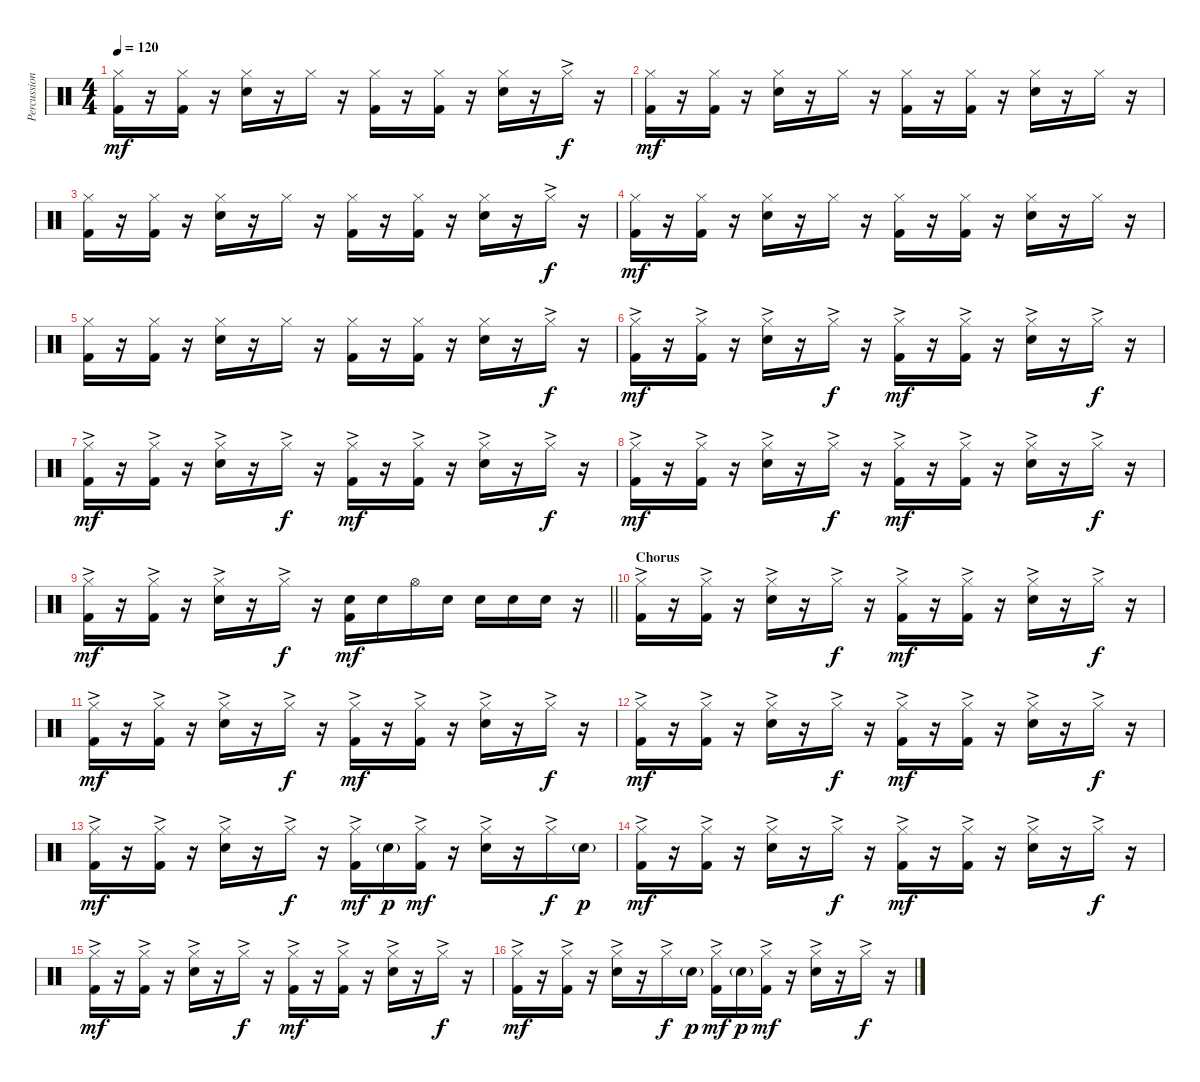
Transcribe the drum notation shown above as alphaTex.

\track ("Percussion" "Percussion") {instrument percussion}
\staff {score}
\articulation defaults
\ts (4 4)
\tempo 120
\clef neutral
\ks c
("Hi-Hat (closed)" "Kick (hit) 2").16{dy mf} r.16 ("Hi-Hat (closed)" "Kick (hit) 2").16 r.16 ("Hi-Hat (closed)" "Electric Snare (hit)").16 r.16 "Hi-Hat (closed)".16 r.16 ("Hi-Hat (closed)" "Kick (hit) 2").16 r.16 ("Hi-Hat (closed)" "Kick (hit) 2").16 r.16 ("Hi-Hat (closed)" "Electric Snare (hit)").16 r.16 "Hi-Hat (closed)"{ac}.16{dy f} r.16 |
("Hi-Hat (closed)" "Kick (hit) 2").16{dy mf} r.16 ("Hi-Hat (closed)" "Kick (hit) 2").16 r.16 ("Hi-Hat (closed)" "Electric Snare (hit)").16 r.16 "Hi-Hat (closed)".16 r.16 ("Hi-Hat (closed)" "Kick (hit) 2").16 r.16 ("Hi-Hat (closed)" "Kick (hit) 2").16 r.16 ("Hi-Hat (closed)" "Electric Snare (hit)").16 r.16 "Hi-Hat (closed)".16 r.16 |
("Hi-Hat (closed)" "Kick (hit) 2").16 r.16 ("Hi-Hat (closed)" "Kick (hit) 2").16 r.16 ("Hi-Hat (closed)" "Electric Snare (hit)").16 r.16 "Hi-Hat (closed)".16 r.16 ("Hi-Hat (closed)" "Kick (hit) 2").16 r.16 ("Hi-Hat (closed)" "Kick (hit) 2").16 r.16 ("Hi-Hat (closed)" "Electric Snare (hit)").16 r.16 "Hi-Hat (closed)"{ac}.16{dy f} r.16 |
("Hi-Hat (closed)" "Kick (hit) 2").16{dy mf} r.16 ("Hi-Hat (closed)" "Kick (hit) 2").16 r.16 ("Hi-Hat (closed)" "Electric Snare (hit)").16 r.16 "Hi-Hat (closed)".16 r.16 ("Hi-Hat (closed)" "Kick (hit) 2").16 r.16 ("Hi-Hat (closed)" "Kick (hit) 2").16 r.16 ("Hi-Hat (closed)" "Electric Snare (hit)").16 r.16 "Hi-Hat (closed)".16 r.16 |
("Hi-Hat (closed)" "Kick (hit) 2").16 r.16 ("Hi-Hat (closed)" "Kick (hit) 2").16 r.16 ("Hi-Hat (closed)" "Electric Snare (hit)").16 r.16 "Hi-Hat (closed)".16 r.16 ("Hi-Hat (closed)" "Kick (hit) 2").16 r.16 ("Hi-Hat (closed)" "Kick (hit) 2").16 r.16 ("Hi-Hat (closed)" "Electric Snare (hit)").16 r.16 "Hi-Hat (closed)"{ac}.16{dy f} r.16 |
("Hi-Hat (closed)"{ac} "Kick (hit) 2").16{dy mf} r.16 ("Hi-Hat (closed)"{ac} "Kick (hit) 2").16 r.16 ("Hi-Hat (closed)"{ac} "Electric Snare (hit)").16 r.16 "Hi-Hat (closed)"{ac}.16{dy f} r.16 ("Hi-Hat (closed)"{ac} "Kick (hit) 2").16{dy mf} r.16 ("Hi-Hat (closed)"{ac} "Kick (hit) 2").16 r.16 ("Hi-Hat (closed)"{ac} "Electric Snare (hit)").16 r.16 "Hi-Hat (closed)"{ac}.16{dy f} r.16 |
("Hi-Hat (closed)"{ac} "Kick (hit) 2").16{dy mf} r.16 ("Hi-Hat (closed)"{ac} "Kick (hit) 2").16 r.16 ("Hi-Hat (closed)"{ac} "Electric Snare (hit)").16 r.16 "Hi-Hat (closed)"{ac}.16{dy f} r.16 ("Hi-Hat (closed)"{ac} "Kick (hit) 2").16{dy mf} r.16 ("Hi-Hat (closed)"{ac} "Kick (hit) 2").16 r.16 ("Hi-Hat (closed)"{ac} "Electric Snare (hit)").16 r.16 "Hi-Hat (closed)"{ac}.16{dy f} r.16 |
("Hi-Hat (closed)"{ac} "Kick (hit) 2").16{dy mf} r.16 ("Hi-Hat (closed)"{ac} "Kick (hit) 2").16 r.16 ("Hi-Hat (closed)"{ac} "Electric Snare (hit)").16 r.16 "Hi-Hat (closed)"{ac}.16{dy f} r.16 ("Hi-Hat (closed)"{ac} "Kick (hit) 2").16{dy mf} r.16 ("Hi-Hat (closed)"{ac} "Kick (hit) 2").16 r.16 ("Hi-Hat (closed)"{ac} "Electric Snare (hit)").16 r.16 "Hi-Hat (closed)"{ac}.16{dy f} r.16 |
\barLineRight lightlight
("Hi-Hat (closed)"{ac} "Kick (hit) 2").16{dy mf} r.16 ("Hi-Hat (closed)"{ac} "Kick (hit) 2").16 r.16 ("Hi-Hat (closed)"{ac} "Electric Snare (hit)").16 r.16 "Hi-Hat (closed)"{ac}.16{dy f} r.16 ("Electric Snare (hit)" "Kick (hit) 2").16{dy mf} "Electric Snare (hit)".16 "Hi-Hat (open)".16 "Electric Snare (hit)".16 "Electric Snare (hit)".16 "Electric Snare (hit)".16 "Electric Snare (hit)".16 r.16 |
\section ("" "Chorus")
("Hi-Hat (closed)"{ac} "Kick (hit) 2").16 r.16 ("Hi-Hat (closed)"{ac} "Kick (hit) 2").16 r.16 ("Hi-Hat (closed)"{ac} "Electric Snare (hit)").16 r.16 "Hi-Hat (closed)"{ac}.16{dy f} r.16 ("Hi-Hat (closed)"{ac} "Kick (hit) 2").16{dy mf} r.16 ("Hi-Hat (closed)"{ac} "Kick (hit) 2").16 r.16 ("Hi-Hat (closed)"{ac} "Electric Snare (hit)").16 r.16 "Hi-Hat (closed)"{ac}.16{dy f} r.16 |
("Hi-Hat (closed)"{ac} "Kick (hit) 2").16{dy mf} r.16 ("Hi-Hat (closed)"{ac} "Kick (hit) 2").16 r.16 ("Hi-Hat (closed)"{ac} "Electric Snare (hit)").16 r.16 "Hi-Hat (closed)"{ac}.16{dy f} r.16 ("Hi-Hat (closed)"{ac} "Kick (hit) 2").16{dy mf} r.16 ("Hi-Hat (closed)"{ac} "Kick (hit) 2").16 r.16 ("Hi-Hat (closed)"{ac} "Electric Snare (hit)").16 r.16 "Hi-Hat (closed)"{ac}.16{dy f} r.16 |
("Hi-Hat (closed)"{ac} "Kick (hit) 2").16{dy mf} r.16 ("Hi-Hat (closed)"{ac} "Kick (hit) 2").16 r.16 ("Hi-Hat (closed)"{ac} "Electric Snare (hit)").16 r.16 "Hi-Hat (closed)"{ac}.16{dy f} r.16 ("Hi-Hat (closed)"{ac} "Kick (hit) 2").16{dy mf} r.16 ("Hi-Hat (closed)"{ac} "Kick (hit) 2").16 r.16 ("Hi-Hat (closed)"{ac} "Electric Snare (hit)").16 r.16 "Hi-Hat (closed)"{ac}.16{dy f} r.16 |
("Hi-Hat (closed)"{ac} "Kick (hit) 2").16{dy mf} r.16 ("Hi-Hat (closed)"{ac} "Kick (hit) 2").16 r.16 ("Hi-Hat (closed)"{ac} "Electric Snare (hit)").16 r.16 "Hi-Hat (closed)"{ac}.16{dy f} r.16 ("Hi-Hat (closed)"{ac} "Kick (hit) 2").16{dy mf} "Electric Snare (hit)"{g}.16{dy p} ("Hi-Hat (closed)"{ac} "Kick (hit) 2").16{dy mf} r.16 ("Hi-Hat (closed)"{ac} "Electric Snare (hit)").16 r.16 "Hi-Hat (closed)"{ac}.16{dy f} "Electric Snare (hit)"{g}.16{dy p} |
("Hi-Hat (closed)"{ac} "Kick (hit) 2").16{dy mf} r.16 ("Hi-Hat (closed)"{ac} "Kick (hit) 2").16 r.16 ("Hi-Hat (closed)"{ac} "Electric Snare (hit)").16 r.16 "Hi-Hat (closed)"{ac}.16{dy f} r.16 ("Hi-Hat (closed)"{ac} "Kick (hit) 2").16{dy mf} r.16 ("Hi-Hat (closed)"{ac} "Kick (hit) 2").16 r.16 ("Hi-Hat (closed)"{ac} "Electric Snare (hit)").16 r.16 "Hi-Hat (closed)"{ac}.16{dy f} r.16 |
("Hi-Hat (closed)"{ac} "Kick (hit) 2").16{dy mf} r.16 ("Hi-Hat (closed)"{ac} "Kick (hit) 2").16 r.16 ("Hi-Hat (closed)"{ac} "Electric Snare (hit)").16 r.16 "Hi-Hat (closed)"{ac}.16{dy f} r.16 ("Hi-Hat (closed)"{ac} "Kick (hit) 2").16{dy mf} r.16 ("Hi-Hat (closed)"{ac} "Kick (hit) 2").16 r.16 ("Hi-Hat (closed)"{ac} "Electric Snare (hit)").16 r.16 "Hi-Hat (closed)"{ac}.16{dy f} r.16 |
("Hi-Hat (closed)"{ac} "Kick (hit) 2").16{dy mf} r.16 ("Hi-Hat (closed)"{ac} "Kick (hit) 2").16 r.16 ("Hi-Hat (closed)"{ac} "Electric Snare (hit)").16 r.16 "Hi-Hat (closed)"{ac}.16{dy f} "Electric Snare (hit)"{g}.16{dy p} ("Hi-Hat (closed)"{ac} "Kick (hit) 2").16{dy mf} "Electric Snare (hit)"{g}.16{dy p} ("Hi-Hat (closed)"{ac} "Kick (hit) 2").16{dy mf} r.16 ("Hi-Hat (closed)"{ac} "Electric Snare (hit)").16 r.16 "Hi-Hat (closed)"{ac}.16{dy f} r.16
